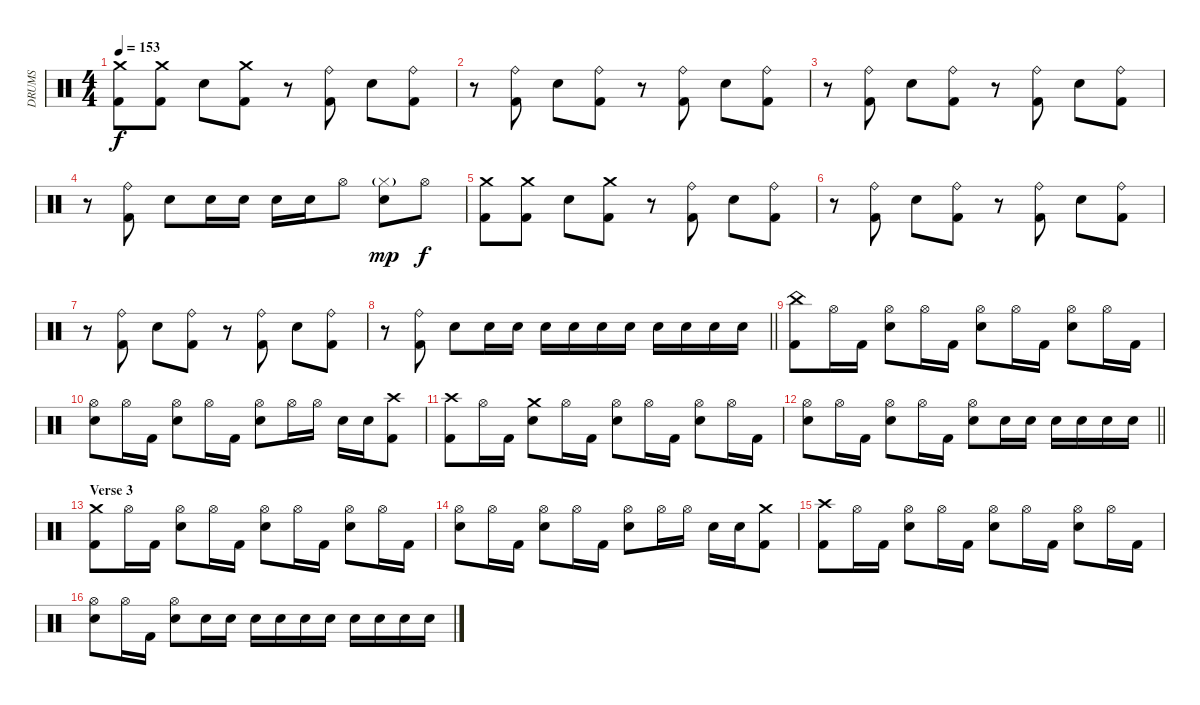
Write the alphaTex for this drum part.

\track ("DRUMS" "DRUMS") {instrument percussion}
\staff {score}
\articulation defaults
\ts (4 4)
\tempo 153
\clef neutral
\ks c
("Crash medium (hit)" "Kick (hit) 2").8{dy f} ("Crash medium (hit)" "Kick (hit) 2").8 "Snare (hit) 2".8 ("Crash medium (hit)" "Kick (hit) 2").8 r.8 ("Ride (bell)" "Kick (hit) 2").8 "Snare (hit) 2".8 ("Ride (bell)" "Kick (hit) 2").8 |
r.8 ("Ride (bell)" "Kick (hit) 2").8 "Snare (hit) 2".8 ("Ride (bell)" "Kick (hit) 2").8 r.8 ("Ride (bell)" "Kick (hit) 2").8 "Snare (hit) 2".8 ("Ride (bell)" "Kick (hit) 2").8 |
r.8 ("Ride (bell)" "Kick (hit) 2").8 "Snare (hit) 2".8 ("Ride (bell)" "Kick (hit) 2").8 r.8 ("Ride (bell)" "Kick (hit) 2").8 "Snare (hit) 2".8 ("Ride (bell)" "Kick (hit) 2").8 |
r.8 ("Ride (bell)" "Kick (hit) 2").8 "Snare (hit) 2".8 "Snare (hit) 2".16 "Snare (hit) 2".16 "Snare (hit) 2".16 "Snare (hit) 2".16 "Hi-Hat (open)".8 ("Hi-Hat (closed)"{g} "Snare (hit) 2").8{dy mp} "Hi-Hat (open)".8{dy f} |
("Crash medium (hit)" "Kick (hit) 2").8 ("Crash medium (hit)" "Kick (hit) 2").8 "Snare (hit) 2".8 ("Crash medium (hit)" "Kick (hit) 2").8 r.8 ("Ride (bell)" "Kick (hit) 2").8 "Snare (hit) 2".8 ("Ride (bell)" "Kick (hit) 2").8 |
r.8 ("Ride (bell)" "Kick (hit) 2").8 "Snare (hit) 2".8 ("Ride (bell)" "Kick (hit) 2").8 r.8 ("Ride (bell)" "Kick (hit) 2").8 "Snare (hit) 2".8 ("Ride (bell)" "Kick (hit) 2").8 |
r.8 ("Ride (bell)" "Kick (hit) 2").8 "Snare (hit) 2".8 ("Ride (bell)" "Kick (hit) 2").8 r.8 ("Ride (bell)" "Kick (hit) 2").8 "Snare (hit) 2".8 ("Ride (bell)" "Kick (hit) 2").8 |
\barLineRight lightlight
r.8 ("Ride (bell)" "Kick (hit) 2").8 "Snare (hit) 2".8 "Snare (hit) 2".16 "Snare (hit) 2".16 "Snare (hit) 2".16 "Snare (hit) 2".16 "Snare (hit) 2".16 "Snare (hit) 2".16 "Snare (hit) 2".16 "Snare (hit) 2".16 "Snare (hit) 2".16 "Snare (hit) 2".16 |
("China (hit)" "Kick (hit) 2").8 "Hi-Hat (open)".16 "Kick (hit) 2".16 ("Hi-Hat (open)" "Snare (hit) 2").8 "Hi-Hat (open)".16 "Kick (hit) 2".16 ("Hi-Hat (open)" "Snare (hit) 2").8 "Hi-Hat (open)".16 "Kick (hit) 2".16 ("Hi-Hat (open)" "Snare (hit) 2").8 "Hi-Hat (open)".16 "Kick (hit) 2".16 |
("Hi-Hat (open)" "Snare (hit) 2").8 "Hi-Hat (open)".16 "Kick (hit) 2".16 ("Hi-Hat (open)" "Snare (hit) 2").8 "Hi-Hat (open)".16 "Kick (hit) 2".16 ("Hi-Hat (open)" "Snare (hit) 2").8 "Hi-Hat (open)".16 "Hi-Hat (open)".16 "Snare (hit) 2".16 "Snare (hit) 2".16 ("Crash high (hit)" "Kick (hit) 2").8 |
("Crash high (hit)" "Kick (hit) 2").8 "Hi-Hat (open)".16 "Kick (hit) 2".16 ("Crash medium (hit)" "Snare (hit) 2").8 "Hi-Hat (open)".16 "Kick (hit) 2".16 ("Hi-Hat (open)" "Snare (hit) 2").8 "Hi-Hat (open)".16 "Kick (hit) 2".16 ("Hi-Hat (open)" "Snare (hit) 2").8 "Hi-Hat (open)".16 "Kick (hit) 2".16 |
\barLineRight lightlight
("Hi-Hat (open)" "Snare (hit) 2").8 "Hi-Hat (open)".16 "Kick (hit) 2".16 ("Hi-Hat (open)" "Snare (hit) 2").8 "Hi-Hat (open)".16 "Kick (hit) 2".16 ("Hi-Hat (open)" "Snare (hit) 2").8 "Snare (hit) 2".16 "Snare (hit) 2".16 "Snare (hit) 2".16 "Snare (hit) 2".16 "Snare (hit) 2".16 "Snare (hit) 2".16 |
\section ("" "Verse 3")
("Crash medium (hit)" "Kick (hit) 2").8 "Hi-Hat (open)".16 "Kick (hit) 2".16 ("Hi-Hat (open)" "Snare (hit) 2").8 "Hi-Hat (open)".16 "Kick (hit) 2".16 ("Hi-Hat (open)" "Snare (hit) 2").8 "Hi-Hat (open)".16 "Kick (hit) 2".16 ("Hi-Hat (open)" "Snare (hit) 2").8 "Hi-Hat (open)".16 "Kick (hit) 2".16 |
("Hi-Hat (open)" "Snare (hit) 2").8 "Hi-Hat (open)".16 "Kick (hit) 2".16 ("Hi-Hat (open)" "Snare (hit) 2").8 "Hi-Hat (open)".16 "Kick (hit) 2".16 ("Hi-Hat (open)" "Snare (hit) 2").8 "Hi-Hat (open)".16 "Hi-Hat (open)".16 "Snare (hit) 2".16 "Snare (hit) 2".16 ("Crash medium (hit)" "Kick (hit) 2").8 |
("Crash high (hit)" "Kick (hit) 2").8 "Hi-Hat (open)".16 "Kick (hit) 2".16 ("Hi-Hat (open)" "Snare (hit) 2").8 "Hi-Hat (open)".16 "Kick (hit) 2".16 ("Hi-Hat (open)" "Snare (hit) 2").8 "Hi-Hat (open)".16 "Kick (hit) 2".16 ("Hi-Hat (open)" "Snare (hit) 2").8 "Hi-Hat (open)".16 "Kick (hit) 2".16 |
("Hi-Hat (open)" "Snare (hit) 2").8 "Hi-Hat (open)".16 "Kick (hit) 2".16 ("Hi-Hat (open)" "Snare (hit) 2").8 "Snare (hit) 2".16 "Snare (hit) 2".16 "Snare (hit) 2".16 "Snare (hit) 2".16 "Snare (hit) 2".16 "Snare (hit) 2".16 "Snare (hit) 2".16 "Snare (hit) 2".16 "Snare (hit) 2".16 "Snare (hit) 2".16
